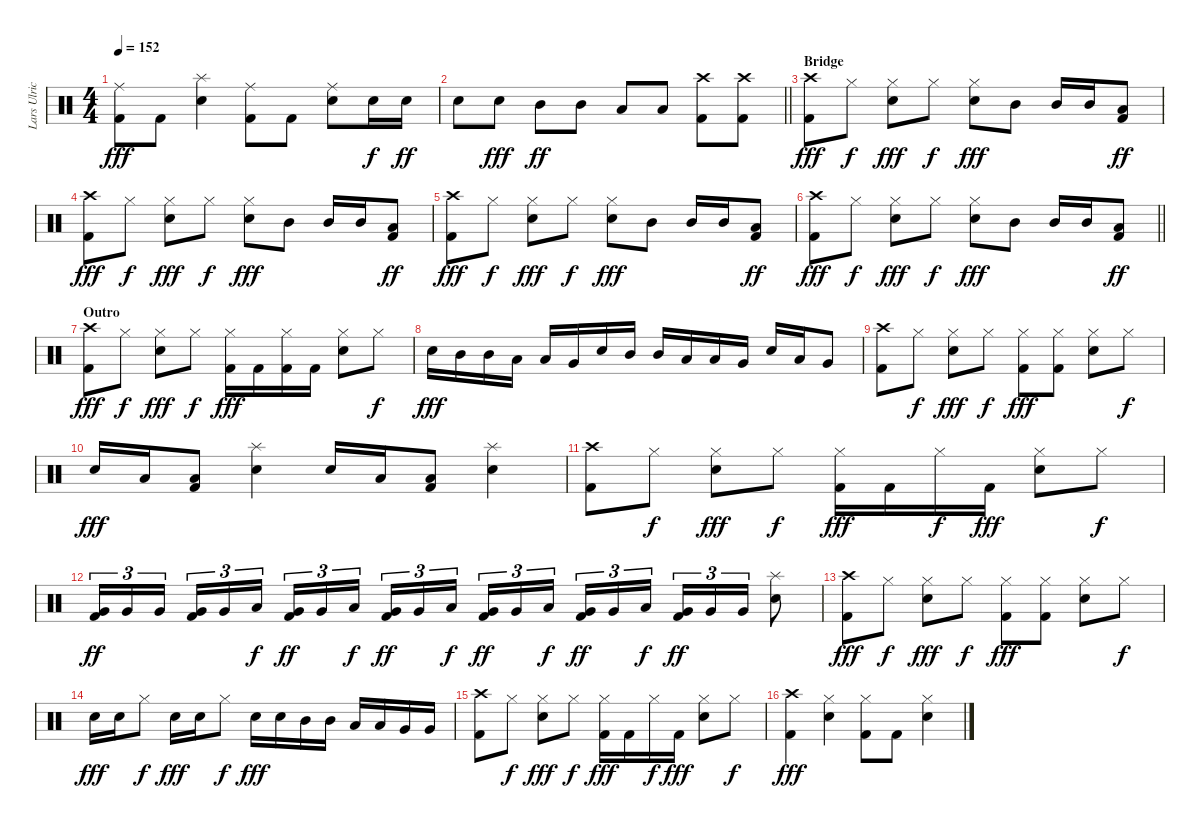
\track ("Lars Ulrich" "Lars Ulric") {instrument percussion}
\staff {score}
\articulation defaults
\ts (4 4)
\tempo 152
\clef neutral
\ks c
("Ride (middle)" "Kick (hit) 2").8{dy fff} "Kick (hit) 2".8 ("Splash (hit)" "Snare (hit) 2").4 ("Ride (middle)" "Kick (hit) 2").8 "Kick (hit) 2".8 ("Ride (middle)" "Snare (hit) 2").8 "Snare (hit) 2".16{dy f} "Snare (hit) 2".16{dy ff} |
\barLineRight lightlight "Snare (hit) 2".8 "Snare (hit) 2".8{dy fff} "Mid Tom (hit)".8{dy ff} "Mid Tom (hit)".8 "Low Tom (hit)".8 "Low Tom (hit)".8
("Crash high (hit)" "Kick (hit) 2").8 ("Crash high (hit)" "Kick (hit) 2").8 |
\section ("" "Bridge")
("Crash high (hit)" "Kick (hit) 2").8{dy fff} "Hi-Hat (closed)".8{dy f} ("Hi-Hat (closed)" "Snare (hit) 2").8{dy fff} "Hi-Hat (closed)".8{dy f} ("Hi-Hat (closed)" "Snare (hit) 2").8{dy fff} "Mid Tom (hit)".8 "Mid Tom (hit)".16 "Mid Tom (hit)".16 ("Low Tom (hit)" "Kick (hit) 2").8{dy ff} |
("Crash high (hit)" "Kick (hit) 2").8{dy fff} "Hi-Hat (closed)".8{dy f} ("Hi-Hat (closed)" "Snare (hit) 2").8{dy fff} "Hi-Hat (closed)".8{dy f} ("Hi-Hat (closed)" "Snare (hit) 2").8{dy fff} "Mid Tom (hit)".8 "Mid Tom (hit)".16 "Mid Tom (hit)".16 ("Low Tom (hit)" "Kick (hit) 2").8{dy ff} |
("Crash high (hit)" "Kick (hit) 2").8{dy fff} "Hi-Hat (closed)".8{dy f} ("Hi-Hat (closed)" "Snare (hit) 2").8{dy fff} "Hi-Hat (closed)".8{dy f} ("Hi-Hat (closed)" "Snare (hit) 2").8{dy fff} "Mid Tom (hit)".8 "Mid Tom (hit)".16 "Mid Tom (hit)".16 ("Low Tom (hit)" "Kick (hit) 2").8{dy ff} |
\barLineRight lightlight
("Crash high (hit)" "Kick (hit) 2").8{dy fff} "Hi-Hat (closed)".8{dy f} ("Hi-Hat (closed)" "Snare (hit) 2").8{dy fff} "Hi-Hat (closed)".8{dy f} ("Hi-Hat (closed)" "Snare (hit) 2").8{dy fff} "Mid Tom (hit)".8 "Mid Tom (hit)".16 "Mid Tom (hit)".16 ("Low Tom (hit)" "Kick (hit) 2").8{dy ff} |
\section ("" "Outro")
("Crash high (hit)" "Kick (hit) 2").8{dy fff} "Hi-Hat (closed)".8{dy f} ("Hi-Hat (closed)" "Snare (hit) 2").8{dy fff} "Hi-Hat (closed)".8{dy f} ("Hi-Hat (closed)" "Kick (hit) 2").16{dy fff} "Kick (hit) 2".16 ("Hi-Hat (closed)" "Kick (hit) 2").16 "Kick (hit) 2".16 ("Hi-Hat (closed)" "Snare (hit) 2").8 "Hi-Hat (closed)".8{dy f} |
"Snare (hit) 2".16{dy fff} "Mid Tom (hit)".16 "Mid Tom (hit)".16 "Low Tom (hit)".16 "Low Tom (hit)".16 "Very Low Tom (hit)".16 "Snare (hit) 2".16 "Mid Tom (hit)".16 "Mid Tom (hit)".16 "Low Tom (hit)".16 "Low Tom (hit)".16 "Very Low Tom (hit)".16 "Snare (hit) 2".16 "Low Tom (hit)".16 "Very Low Tom (hit)".8 |
("Crash high (hit)" "Kick (hit) 2").8 "Hi-Hat (closed)".8{dy f} ("Hi-Hat (closed)" "Snare (hit) 2").8{dy fff} "Hi-Hat (closed)".8{dy f} ("Hi-Hat (closed)" "Kick (hit) 2").8{dy fff} ("Hi-Hat (closed)" "Kick (hit) 2").8 ("Hi-Hat (closed)" "Snare (hit) 2").8 "Hi-Hat (closed)".8{dy f} |
"Snare (hit) 2".16{dy fff} "Low Tom (hit)".16 ("Low Tom (hit)" "Kick (hit) 2").8 ("Splash (hit)" "Snare (hit) 2").4 "Snare (hit) 2".16 "Low Tom (hit)".16 ("Low Tom (hit)" "Kick (hit) 2").8 ("Splash (hit)" "Snare (hit) 2").4 |
("Crash high (hit)" "Kick (hit) 2").8 "Hi-Hat (closed)".8{dy f} ("Hi-Hat (closed)" "Snare (hit) 2").8{dy fff} "Hi-Hat (closed)".8{dy f} ("Hi-Hat (closed)" "Kick (hit) 2").16{dy fff} "Kick (hit) 2".16 "Hi-Hat (closed)".16{dy f} "Kick (hit) 2".16{dy fff} ("Hi-Hat (closed)" "Snare (hit) 2").8 "Hi-Hat (closed)".8{dy f} |
("Very Low Tom (hit)" "Kick (hit) 2").16{tu (3 2) dy ff} "Very Low Tom (hit)".16{tu (3 2)} "Very Low Tom (hit)".16{tu (3 2) beam splitsecondary} ("Very Low Tom (hit)" "Kick (hit) 2").16{tu (3 2)} "Very Low Tom (hit)".16{tu (3 2)} "Low Floor Tom (hit)".16{tu (3 2) dy f} ("Very Low Tom (hit)" "Kick (hit) 2").16{tu (3 2) dy ff} "Very Low Tom (hit)".16{tu (3 2)} "Low Floor Tom (hit)".16{tu (3 2) dy f beam splitsecondary} ("Very Low Tom (hit)" "Kick (hit) 2").16{tu (3 2) dy ff} "Very Low Tom (hit)".16{tu (3 2)} "Low Floor Tom (hit)".16{tu (3 2) dy f} ("Very Low Tom (hit)" "Kick (hit) 2").16{tu (3 2) dy ff} "Very Low Tom (hit)".16{tu (3 2)} "Low Floor Tom (hit)".16{tu (3 2) dy f beam splitsecondary} ("Very Low Tom (hit)" "Kick (hit) 2").16{tu (3 2) dy ff} "Very Low Tom (hit)".16{tu (3 2)} "Low Floor Tom (hit)".16{tu (3 2) dy f} ("Very Low Tom (hit)" "Kick (hit) 2").16{tu (3 2) dy ff} "Very Low Tom (hit)".16{tu (3 2)} "Very Low Tom (hit)".16{tu (3 2)} ("Splash (hit)" "Snare (hit) 2").8 |
("Crash high (hit)" "Kick (hit) 2").8{dy fff} "Hi-Hat (closed)".8{dy f} ("Hi-Hat (closed)" "Snare (hit) 2").8{dy fff} "Hi-Hat (closed)".8{dy f} ("Hi-Hat (closed)" "Kick (hit) 2").8{dy fff} ("Hi-Hat (closed)" "Kick (hit) 2").8 ("Hi-Hat (closed)" "Snare (hit) 2").8 "Hi-Hat (closed)".8{dy f} |
"Snare (hit) 2".16{dy fff} "Snare (hit) 2".16 "Hi-Hat (closed)".8{dy f} "Snare (hit) 2".16{dy fff} "Snare (hit) 2".16 "Hi-Hat (closed)".8{dy f} "Snare (hit) 2".16{dy fff} "Snare (hit) 2".16 "Mid Tom (hit)".16 "Mid Tom (hit)".16 "Low Tom (hit)".16 "Low Tom (hit)".16 "Very Low Tom (hit)".16 "Very Low Tom (hit)".16 |
("Crash high (hit)" "Kick (hit) 2").8 "Hi-Hat (closed)".8{dy f} ("Hi-Hat (closed)" "Snare (hit) 2").8{dy fff} "Hi-Hat (closed)".8{dy f} ("Hi-Hat (closed)" "Kick (hit) 2").16{dy fff} "Kick (hit) 2".16 "Hi-Hat (closed)".16{dy f} "Kick (hit) 2".16{dy fff} ("Hi-Hat (closed)" "Snare (hit) 2").8 "Hi-Hat (closed)".8{dy f} |
("Crash high (hit)" "Kick (hit) 2").4{dy fff} ("Hi-Hat (closed)" "Snare (hit) 2").4 ("Hi-Hat (closed)" "Kick (hit) 2").8 "Kick (hit) 2".8 ("Hi-Hat (closed)" "Snare (hit) 2").4
